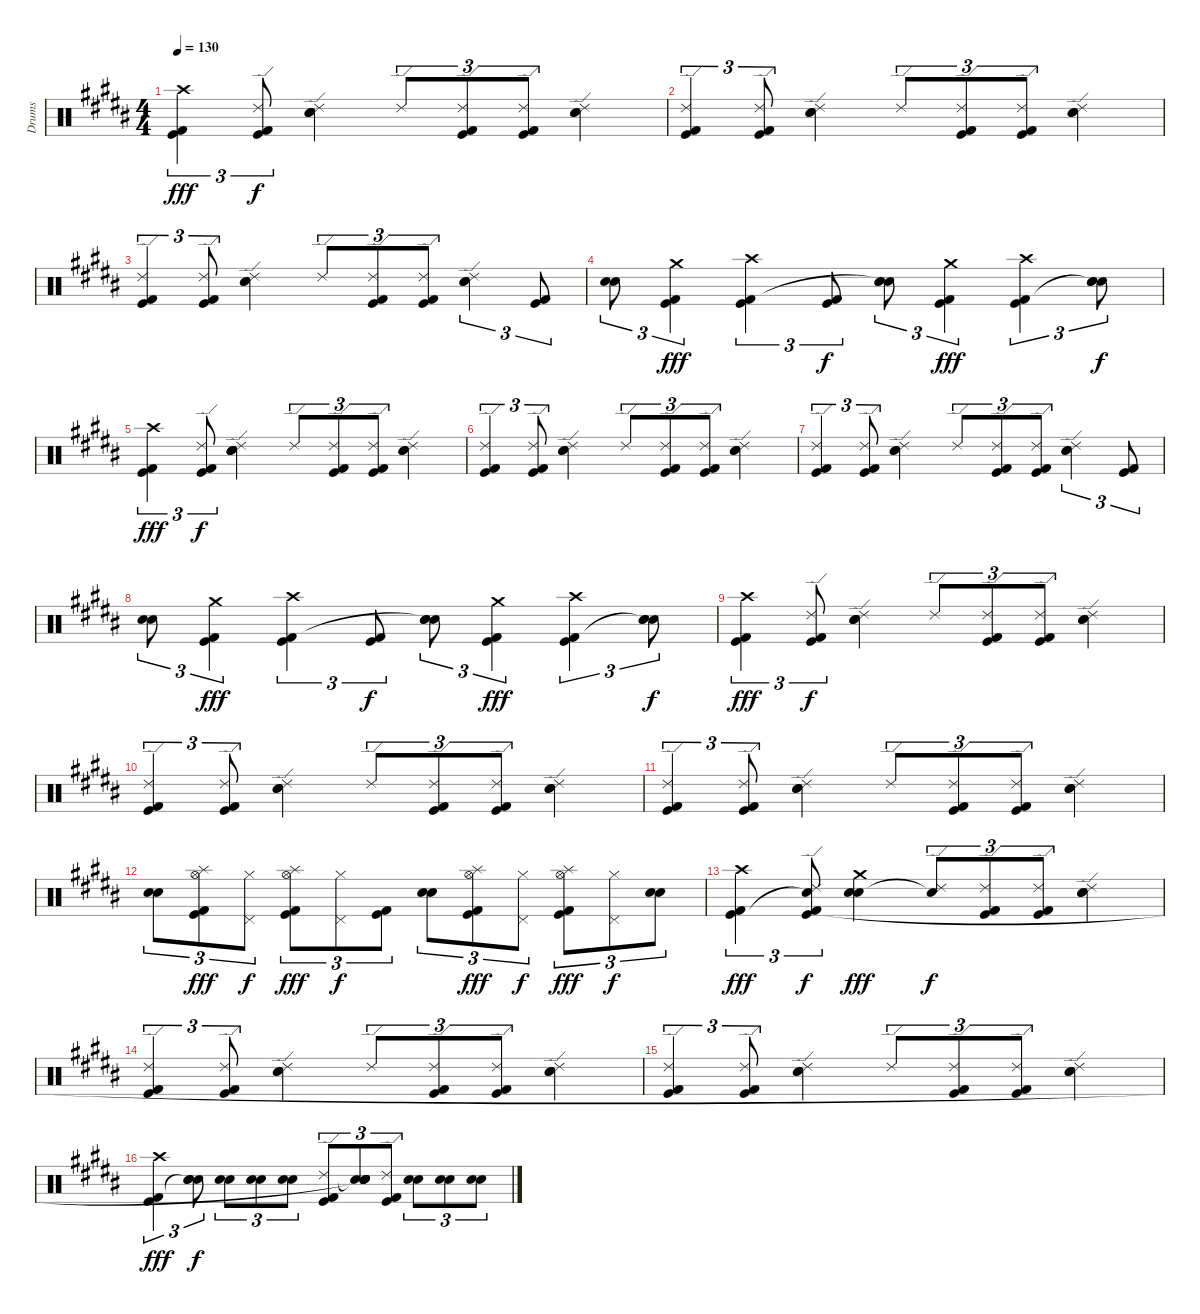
\track ("Drums" "Drums") {instrument percussion}
\staff {score}
\articulation defaults
\ts (4 4)
\tempo 130
\clef neutral
\ks b
("Crash high (hit)" "Kick (hit)" "Kick (hit) 2").4{tu (3 2) dy fff} ("Ride (edge) 2" "Kick (hit)" "Kick (hit) 2").8{tu (3 2) dy f} ("Ride (edge) 2" "Electric Snare (hit)" "Snare (hit) 2" "Snare (hit)"{t}).4 "Ride (edge) 2".8{tu (3 2)} ("Ride (edge) 2" "Kick (hit)" "Kick (hit) 2").8{tu (3 2)} ("Ride (edge) 2" "Kick (hit)" "Kick (hit) 2").8{tu (3 2)} ("Ride (edge) 2" "Electric Snare (hit)" "Snare (hit) 2").4 |
("Ride (edge) 2" "Kick (hit)" "Kick (hit) 2").4{tu (3 2)} ("Ride (edge) 2" "Kick (hit)" "Kick (hit) 2").8{tu (3 2)} ("Ride (edge) 2" "Electric Snare (hit)" "Snare (hit) 2").4 "Ride (edge) 2".8{tu (3 2)} ("Ride (edge) 2" "Kick (hit)" "Kick (hit) 2").8{tu (3 2)} ("Ride (edge) 2" "Kick (hit)" "Kick (hit) 2").8{tu (3 2)} ("Ride (edge) 2" "Electric Snare (hit)" "Snare (hit) 2").4 |
("Ride (edge) 2" "Kick (hit)" "Kick (hit) 2").4{tu (3 2)} ("Ride (edge) 2" "Kick (hit)" "Kick (hit) 2").8{tu (3 2)} ("Ride (edge) 2" "Electric Snare (hit)" "Snare (hit) 2").4 "Ride (edge) 2".8{tu (3 2)} ("Ride (edge) 2" "Kick (hit)" "Kick (hit) 2").8{tu (3 2)} ("Ride (edge) 2" "Kick (hit)" "Kick (hit) 2").8{tu (3 2)} ("Ride (edge) 2" "Electric Snare (hit)" "Snare (hit) 2").4{tu (3 2)} ("Kick (hit)" "Kick (hit) 2").8{tu (3 2)} |
("Electric Snare (hit)" "Snare (hit) 2").8{tu (3 2)} ("Crash medium (hit)" "Kick (hit)" "Kick (hit) 2").4{tu (3 2) dy fff} ("Crash high (hit)" "Kick (hit)" "Kick (hit) 2").4{tu (3 2)} ("Kick (hit)" "Kick (hit) 2").8{tu (3 2) dy f} ("Electric Snare (hit)" "Snare (hit) 2" "Snare (hit)"{t}).8{tu (3 2)} ("Crash medium (hit)" "Kick (hit)" "Kick (hit) 2").4{tu (3 2) dy fff} ("Crash high (hit)" "Kick (hit)" "Kick (hit) 2").4{tu (3 2)} ("Electric Snare (hit)" "Snare (hit) 2" "Snare (hit)"{t}).8{tu (3 2) dy f} |
("Crash high (hit)" "Kick (hit)" "Kick (hit) 2").4{tu (3 2) dy fff} ("Ride (edge) 2" "Kick (hit)" "Kick (hit) 2").8{tu (3 2) dy f} ("Ride (edge) 2" "Electric Snare (hit)" "Snare (hit) 2" "Snare (hit)").4 "Ride (edge) 2".8{tu (3 2)} ("Ride (edge) 2" "Kick (hit)" "Kick (hit) 2").8{tu (3 2)} ("Ride (edge) 2" "Kick (hit)" "Kick (hit) 2").8{tu (3 2)} ("Ride (edge) 2" "Electric Snare (hit)" "Snare (hit) 2").4 |
("Ride (edge) 2" "Kick (hit)" "Kick (hit) 2").4{tu (3 2)} ("Ride (edge) 2" "Kick (hit)" "Kick (hit) 2").8{tu (3 2)} ("Ride (edge) 2" "Electric Snare (hit)" "Snare (hit) 2").4 "Ride (edge) 2".8{tu (3 2)} ("Ride (edge) 2" "Kick (hit)" "Kick (hit) 2").8{tu (3 2)} ("Ride (edge) 2" "Kick (hit)" "Kick (hit) 2").8{tu (3 2)} ("Ride (edge) 2" "Electric Snare (hit)" "Snare (hit) 2").4 |
("Ride (edge) 2" "Kick (hit)" "Kick (hit) 2").4{tu (3 2)} ("Ride (edge) 2" "Kick (hit)" "Kick (hit) 2").8{tu (3 2)} ("Ride (edge) 2" "Electric Snare (hit)" "Snare (hit) 2").4 "Ride (edge) 2".8{tu (3 2)} ("Ride (edge) 2" "Kick (hit)" "Kick (hit) 2").8{tu (3 2)} ("Ride (edge) 2" "Kick (hit)" "Kick (hit) 2").8{tu (3 2)} ("Ride (edge) 2" "Electric Snare (hit)" "Snare (hit) 2").4{tu (3 2)} ("Kick (hit)" "Kick (hit) 2").8{tu (3 2)} |
("Electric Snare (hit)" "Snare (hit) 2").8{tu (3 2)} ("Crash medium (hit)" "Kick (hit)" "Kick (hit) 2").4{tu (3 2) dy fff} ("Crash high (hit)" "Kick (hit)" "Kick (hit) 2").4{tu (3 2)} ("Kick (hit)" "Kick (hit) 2").8{tu (3 2) dy f} ("Electric Snare (hit)" "Snare (hit) 2" "Snare (hit)"{t}).8{tu (3 2)} ("Crash medium (hit)" "Kick (hit)" "Kick (hit) 2").4{tu (3 2) dy fff} ("Crash high (hit)" "Kick (hit)" "Kick (hit) 2").4{tu (3 2)} ("Electric Snare (hit)" "Snare (hit) 2" "Snare (hit)"{t}).8{tu (3 2) dy f} |
("Crash high (hit)" "Kick (hit)" "Kick (hit) 2").4{tu (3 2) dy fff} ("Ride (edge) 2" "Kick (hit)" "Kick (hit) 2").8{tu (3 2) dy f} ("Ride (edge) 2" "Electric Snare (hit)" "Snare (hit) 2" "Snare (hit)").4 "Ride (edge) 2".8{tu (3 2)} ("Ride (edge) 2" "Kick (hit)" "Kick (hit) 2").8{tu (3 2)} ("Ride (edge) 2" "Kick (hit)" "Kick (hit) 2").8{tu (3 2)} ("Ride (edge) 2" "Electric Snare (hit)" "Snare (hit) 2").4 |
("Ride (edge) 2" "Kick (hit)" "Kick (hit) 2").4{tu (3 2)} ("Ride (edge) 2" "Kick (hit)" "Kick (hit) 2").8{tu (3 2)} ("Ride (edge) 2" "Electric Snare (hit)" "Snare (hit) 2").4 "Ride (edge) 2".8{tu (3 2)} ("Ride (edge) 2" "Kick (hit)" "Kick (hit) 2").8{tu (3 2)} ("Ride (edge) 2" "Kick (hit)" "Kick (hit) 2").8{tu (3 2)} ("Ride (edge) 2" "Electric Snare (hit)" "Snare (hit) 2").4 |
("Ride (edge) 2" "Kick (hit)" "Kick (hit) 2").4{tu (3 2)} ("Ride (edge) 2" "Kick (hit)" "Kick (hit) 2").8{tu (3 2)} ("Ride (edge) 2" "Electric Snare (hit)" "Snare (hit) 2").4 "Ride (edge) 2".8{tu (3 2)} ("Ride (edge) 2" "Kick (hit)" "Kick (hit) 2").8{tu (3 2)} ("Ride (edge) 2" "Kick (hit)" "Kick (hit) 2").8{tu (3 2)} ("Ride (edge) 2" "Electric Snare (hit)" "Snare (hit) 2").4 |
("Electric Snare (hit)" "Snare (hit) 2").8{tu (3 2)} ("Hi-Hat (open)" "Splash (hit)" "Kick (hit)" "Kick (hit) 2").8{tu (3 2) dy fff} ("Hi-Hat (closed)" "Pedal Hi-Hat (hit)").8{tu (3 2) dy f} ("Hi-Hat (open)" "Splash (hit)" "Kick (hit)" "Kick (hit) 2").8{tu (3 2) dy fff} ("Hi-Hat (closed)" "Pedal Hi-Hat (hit)").8{tu (3 2) dy f} ("Kick (hit)" "Kick (hit) 2").8{tu (3 2)} ("Electric Snare (hit)" "Snare (hit) 2").8{tu (3 2)} ("Hi-Hat (open)" "Splash (hit)" "Kick (hit)" "Kick (hit) 2").8{tu (3 2) dy fff} ("Hi-Hat (closed)" "Pedal Hi-Hat (hit)").8{tu (3 2) dy f} ("Hi-Hat (open)" "Splash (hit)" "Kick (hit)" "Kick (hit) 2").8{tu (3 2) dy fff} ("Hi-Hat (closed)" "Pedal Hi-Hat (hit)").8{tu (3 2) dy f} ("Electric Snare (hit)" "Snare (hit) 2").8{tu (3 2)} |
("Crash high (hit)" "Kick (hit)" "Kick (hit) 2").4{tu (3 2) dy fff} ("Ride (edge) 2" "Snare (hit)"{t} "Kick (hit)" "Kick (hit) 2").8{tu (3 2) dy f} ("Electric Snare (hit)" "Snare (hit) 2" "Crash medium (hit)").4{dy fff} ("Ride (edge) 2" "Snare (hit)"{t}).8{tu (3 2) dy f} ("Ride (edge) 2" "Kick (hit)" "Kick (hit) 2").8{tu (3 2)} ("Ride (edge) 2" "Kick (hit)" "Kick (hit) 2").8{tu (3 2)} ("Ride (edge) 2" "Electric Snare (hit)" "Snare (hit) 2").4 |
("Ride (edge) 2" "Kick (hit)" "Kick (hit) 2").4{tu (3 2)} ("Ride (edge) 2" "Kick (hit)" "Kick (hit) 2").8{tu (3 2)} ("Ride (edge) 2" "Electric Snare (hit)" "Snare (hit) 2").4 "Ride (edge) 2".8{tu (3 2)} ("Ride (edge) 2" "Kick (hit)" "Kick (hit) 2").8{tu (3 2)} ("Ride (edge) 2" "Kick (hit)" "Kick (hit) 2").8{tu (3 2)} ("Ride (edge) 2" "Electric Snare (hit)" "Snare (hit) 2").4 |
("Ride (edge) 2" "Kick (hit)" "Kick (hit) 2").4{tu (3 2)} ("Ride (edge) 2" "Kick (hit)" "Kick (hit) 2").8{tu (3 2)} ("Ride (edge) 2" "Electric Snare (hit)" "Snare (hit) 2").4 "Ride (edge) 2".8{tu (3 2)} ("Ride (edge) 2" "Kick (hit)" "Kick (hit) 2").8{tu (3 2)} ("Ride (edge) 2" "Kick (hit)" "Kick (hit) 2").8{tu (3 2)} ("Ride (edge) 2" "Electric Snare (hit)" "Snare (hit) 2").4 |
("Crash high (hit)" "Kick (hit)" "Kick (hit) 2").4{tu (3 2) dy fff} ("Electric Snare (hit)" "Snare (hit) 2" "Snare (hit)"{t}).8{tu (3 2) dy f} ("Electric Snare (hit)" "Snare (hit) 2").8{tu (3 2)} ("Electric Snare (hit)" "Snare (hit) 2").8{tu (3 2)} ("Electric Snare (hit)" "Snare (hit) 2").8{tu (3 2)} ("Ride (edge) 2" "Kick (hit)" "Kick (hit) 2").8{tu (3 2)} ("Snare (hit)"{t} "Electric Snare (hit)" "Snare (hit) 2" "Snare (hit)"{t} "Snare (hit)").8{tu (3 2)} ("Ride (edge) 2" "Kick (hit)" "Kick (hit) 2").8{tu (3 2)} ("Electric Snare (hit)" "Snare (hit) 2").8{tu (3 2)} ("Electric Snare (hit)" "Snare (hit) 2").8{tu (3 2)} ("Electric Snare (hit)" "Snare (hit) 2").8{tu (3 2)}
